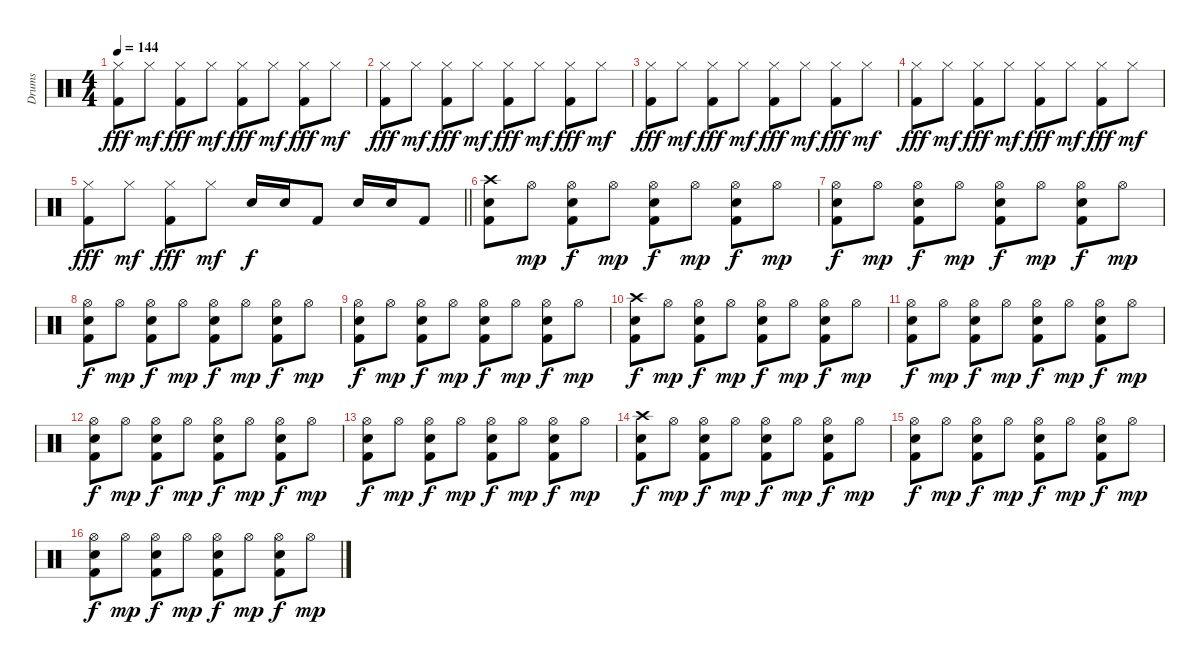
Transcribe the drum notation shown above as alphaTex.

\track ("Drums" "Drums") {instrument percussion}
\staff {score}
\articulation defaults
\ts (4 4)
\tempo 144
\clef neutral
\ks c
("Hi-Hat (closed)" "Kick (hit) 2").8{dy fff} "Hi-Hat (closed)".8{dy mf} ("Hi-Hat (closed)" "Kick (hit) 2").8{dy fff} "Hi-Hat (closed)".8{dy mf} ("Hi-Hat (closed)" "Kick (hit) 2").8{dy fff} "Hi-Hat (closed)".8{dy mf} ("Hi-Hat (closed)" "Kick (hit) 2").8{dy fff} "Hi-Hat (closed)".8{dy mf} |
("Hi-Hat (closed)" "Kick (hit) 2").8{dy fff} "Hi-Hat (closed)".8{dy mf} ("Hi-Hat (closed)" "Kick (hit) 2").8{dy fff} "Hi-Hat (closed)".8{dy mf} ("Hi-Hat (closed)" "Kick (hit) 2").8{dy fff} "Hi-Hat (closed)".8{dy mf} ("Hi-Hat (closed)" "Kick (hit) 2").8{dy fff} "Hi-Hat (closed)".8{dy mf} |
("Hi-Hat (closed)" "Kick (hit) 2").8{dy fff} "Hi-Hat (closed)".8{dy mf} ("Hi-Hat (closed)" "Kick (hit) 2").8{dy fff} "Hi-Hat (closed)".8{dy mf} ("Hi-Hat (closed)" "Kick (hit) 2").8{dy fff} "Hi-Hat (closed)".8{dy mf} ("Hi-Hat (closed)" "Kick (hit) 2").8{dy fff} "Hi-Hat (closed)".8{dy mf} |
("Hi-Hat (closed)" "Kick (hit) 2").8{dy fff} "Hi-Hat (closed)".8{dy mf} ("Hi-Hat (closed)" "Kick (hit) 2").8{dy fff} "Hi-Hat (closed)".8{dy mf} ("Hi-Hat (closed)" "Kick (hit) 2").8{dy fff} "Hi-Hat (closed)".8{dy mf} ("Hi-Hat (closed)" "Kick (hit) 2").8{dy fff} "Hi-Hat (closed)".8{dy mf} |
\barLineRight lightlight
("Hi-Hat (closed)" "Kick (hit) 2").8{dy fff} "Hi-Hat (closed)".8{dy mf} ("Hi-Hat (closed)" "Kick (hit) 2").8{dy fff} "Hi-Hat (closed)".8{dy mf} "Snare (hit) 2".16{dy f} "Snare (hit) 2".16 "Kick (hit) 2".8 "Snare (hit) 2".16 "Snare (hit) 2".16 "Kick (hit) 2".8 |
("Crash high (hit)" "Snare (hit) 2" "Kick (hit) 2").8 "Hi-Hat (open)".8{dy mp} ("Hi-Hat (open)" "Snare (hit) 2" "Kick (hit) 2").8{dy f} "Hi-Hat (open)".8{dy mp} ("Hi-Hat (open)" "Snare (hit) 2" "Kick (hit) 2").8{dy f} "Hi-Hat (open)".8{dy mp} ("Hi-Hat (open)" "Snare (hit) 2" "Kick (hit) 2").8{dy f} "Hi-Hat (open)".8{dy mp} |
("Hi-Hat (open)" "Snare (hit) 2" "Kick (hit) 2").8{dy f} "Hi-Hat (open)".8{dy mp} ("Hi-Hat (open)" "Snare (hit) 2" "Kick (hit) 2").8{dy f} "Hi-Hat (open)".8{dy mp} ("Hi-Hat (open)" "Snare (hit) 2" "Kick (hit) 2").8{dy f} "Hi-Hat (open)".8{dy mp} ("Hi-Hat (open)" "Snare (hit) 2" "Kick (hit) 2").8{dy f} "Hi-Hat (open)".8{dy mp} |
("Hi-Hat (open)" "Snare (hit) 2" "Kick (hit) 2").8{dy f} "Hi-Hat (open)".8{dy mp} ("Hi-Hat (open)" "Snare (hit) 2" "Kick (hit) 2").8{dy f} "Hi-Hat (open)".8{dy mp} ("Hi-Hat (open)" "Snare (hit) 2" "Kick (hit) 2").8{dy f} "Hi-Hat (open)".8{dy mp} ("Hi-Hat (open)" "Snare (hit) 2" "Kick (hit) 2").8{dy f} "Hi-Hat (open)".8{dy mp} |
("Hi-Hat (open)" "Snare (hit) 2" "Kick (hit) 2").8{dy f} "Hi-Hat (open)".8{dy mp} ("Hi-Hat (open)" "Snare (hit) 2" "Kick (hit) 2").8{dy f} "Hi-Hat (open)".8{dy mp} ("Hi-Hat (open)" "Snare (hit) 2" "Kick (hit) 2").8{dy f} "Hi-Hat (open)".8{dy mp} ("Hi-Hat (open)" "Snare (hit) 2" "Kick (hit) 2").8{dy f} "Hi-Hat (open)".8{dy mp} |
("Crash high (hit)" "Snare (hit) 2" "Kick (hit) 2").8{dy f} "Hi-Hat (open)".8{dy mp} ("Hi-Hat (open)" "Snare (hit) 2" "Kick (hit) 2").8{dy f} "Hi-Hat (open)".8{dy mp} ("Hi-Hat (open)" "Snare (hit) 2" "Kick (hit) 2").8{dy f} "Hi-Hat (open)".8{dy mp} ("Hi-Hat (open)" "Snare (hit) 2" "Kick (hit) 2").8{dy f} "Hi-Hat (open)".8{dy mp} |
("Hi-Hat (open)" "Snare (hit) 2" "Kick (hit) 2").8{dy f} "Hi-Hat (open)".8{dy mp} ("Hi-Hat (open)" "Snare (hit) 2" "Kick (hit) 2").8{dy f} "Hi-Hat (open)".8{dy mp} ("Hi-Hat (open)" "Snare (hit) 2" "Kick (hit) 2").8{dy f} "Hi-Hat (open)".8{dy mp} ("Hi-Hat (open)" "Snare (hit) 2" "Kick (hit) 2").8{dy f} "Hi-Hat (open)".8{dy mp} |
("Hi-Hat (open)" "Snare (hit) 2" "Kick (hit) 2").8{dy f} "Hi-Hat (open)".8{dy mp} ("Hi-Hat (open)" "Snare (hit) 2" "Kick (hit) 2").8{dy f} "Hi-Hat (open)".8{dy mp} ("Hi-Hat (open)" "Snare (hit) 2" "Kick (hit) 2").8{dy f} "Hi-Hat (open)".8{dy mp} ("Hi-Hat (open)" "Snare (hit) 2" "Kick (hit) 2").8{dy f} "Hi-Hat (open)".8{dy mp} |
("Hi-Hat (open)" "Snare (hit) 2" "Kick (hit) 2").8{dy f} "Hi-Hat (open)".8{dy mp} ("Hi-Hat (open)" "Snare (hit) 2" "Kick (hit) 2").8{dy f} "Hi-Hat (open)".8{dy mp} ("Hi-Hat (open)" "Snare (hit) 2" "Kick (hit) 2").8{dy f} "Hi-Hat (open)".8{dy mp} ("Hi-Hat (open)" "Snare (hit) 2" "Kick (hit) 2").8{dy f} "Hi-Hat (open)".8{dy mp} |
("Crash high (hit)" "Snare (hit) 2" "Kick (hit) 2").8{dy f} "Hi-Hat (open)".8{dy mp} ("Hi-Hat (open)" "Snare (hit) 2" "Kick (hit) 2").8{dy f} "Hi-Hat (open)".8{dy mp} ("Hi-Hat (open)" "Snare (hit) 2" "Kick (hit) 2").8{dy f} "Hi-Hat (open)".8{dy mp} ("Hi-Hat (open)" "Snare (hit) 2" "Kick (hit) 2").8{dy f} "Hi-Hat (open)".8{dy mp} |
("Hi-Hat (open)" "Snare (hit) 2" "Kick (hit) 2").8{dy f} "Hi-Hat (open)".8{dy mp} ("Hi-Hat (open)" "Snare (hit) 2" "Kick (hit) 2").8{dy f} "Hi-Hat (open)".8{dy mp} ("Hi-Hat (open)" "Snare (hit) 2" "Kick (hit) 2").8{dy f} "Hi-Hat (open)".8{dy mp} ("Hi-Hat (open)" "Snare (hit) 2" "Kick (hit) 2").8{dy f} "Hi-Hat (open)".8{dy mp} |
("Hi-Hat (open)" "Snare (hit) 2" "Kick (hit) 2").8{dy f} "Hi-Hat (open)".8{dy mp} ("Hi-Hat (open)" "Snare (hit) 2" "Kick (hit) 2").8{dy f} "Hi-Hat (open)".8{dy mp} ("Hi-Hat (open)" "Snare (hit) 2" "Kick (hit) 2").8{dy f} "Hi-Hat (open)".8{dy mp} ("Hi-Hat (open)" "Snare (hit) 2" "Kick (hit) 2").8{dy f} "Hi-Hat (open)".8{dy mp}
